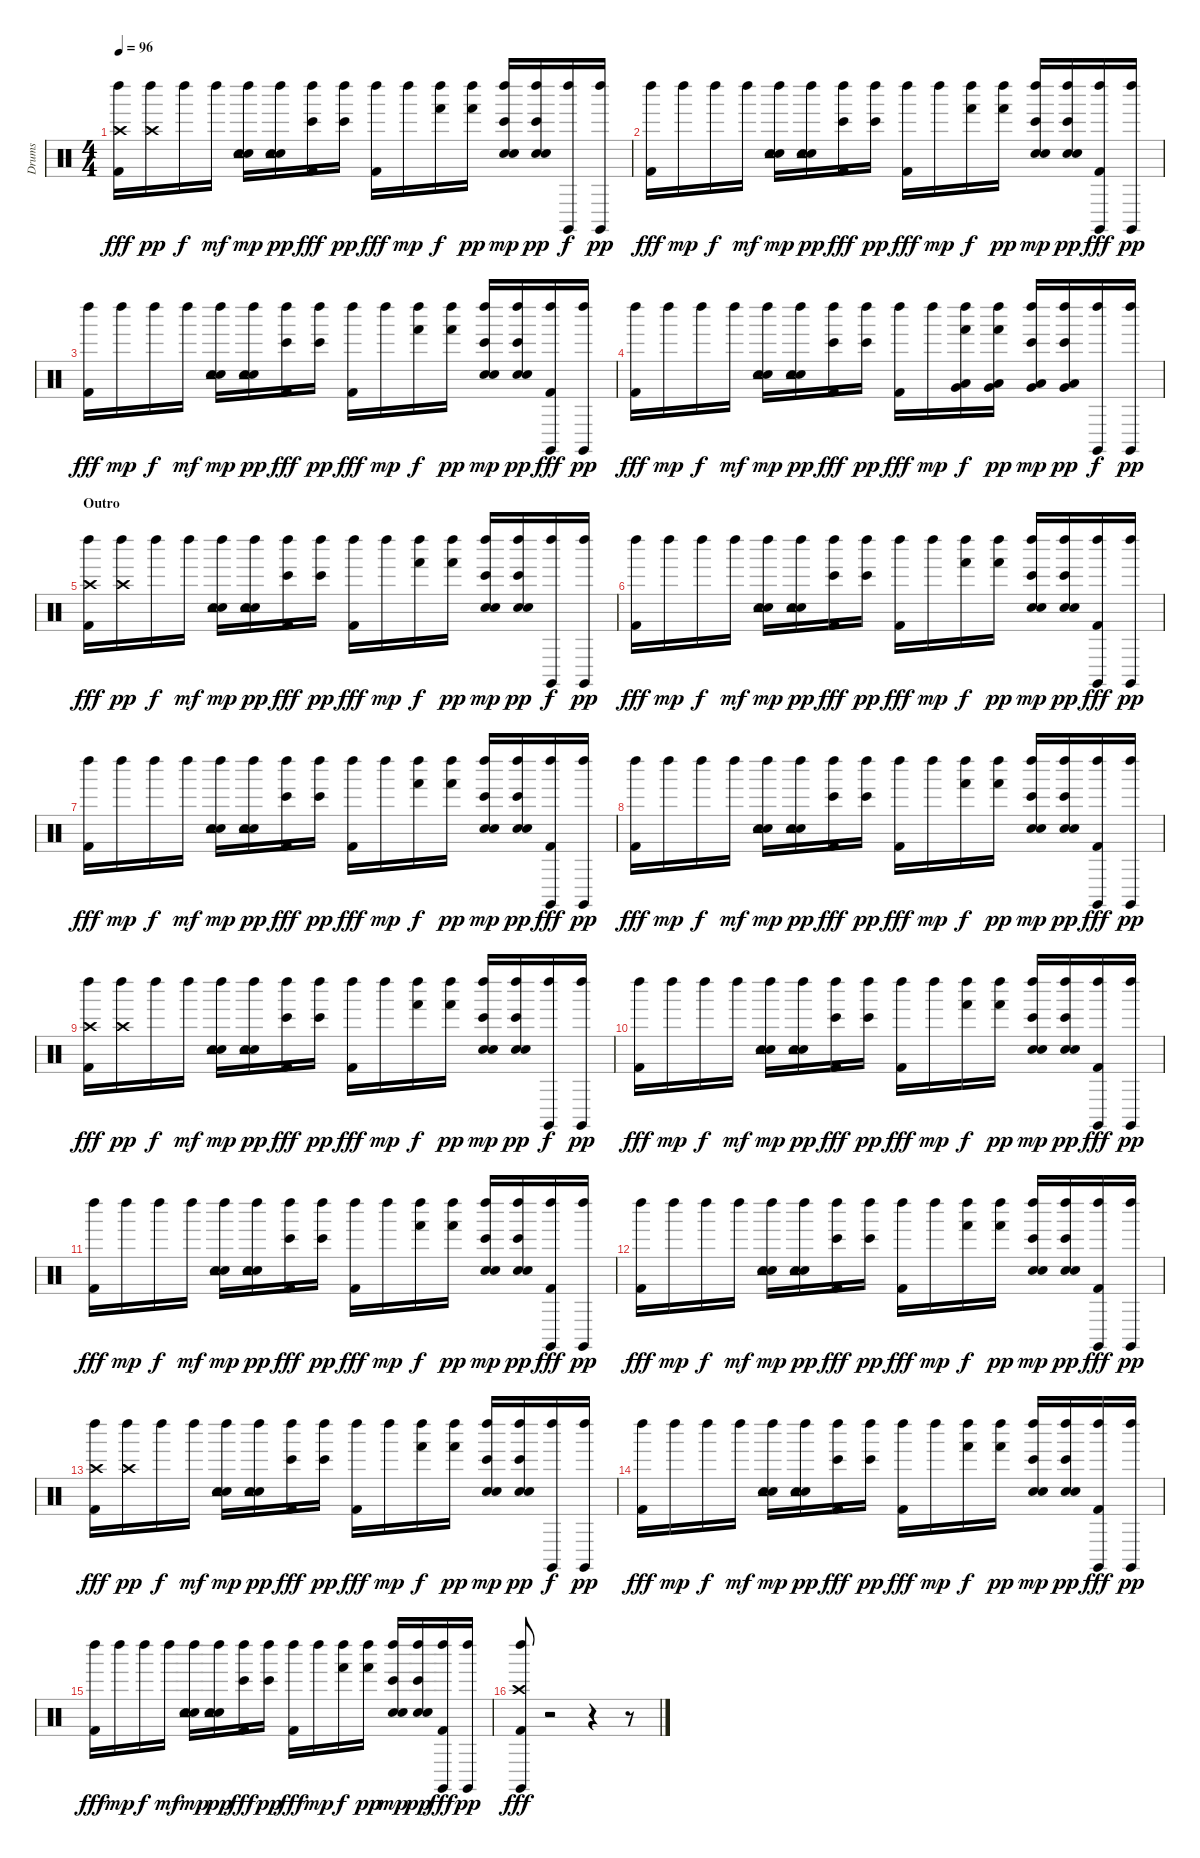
\track ("Drums" "Drums") {instrument percussion}
\staff {score}
\articulation defaults
\ts (4 4)
\tempo 96
\clef neutral
\ks c
("Left Maraca (hit)" "Crash high (hit)" "Kick (hit) 2").16{dy fff} ("Left Maraca (hit)" "Crash high (hit)").16{dy pp} "Left Maraca (hit)".16{dy f} "Left Maraca (hit)".16{dy mf} ("Left Maraca (hit)" "Snare (hit) 2" "Tambourine (hit)" "Electric Snare (hit)").16{dy mp} ("Left Maraca (hit)" "Snare (hit) 2" "Tambourine (hit)" "Electric Snare (hit)").16{dy pp} ("Left Maraca (hit)" "Bongo High (hit)" "Kick (hit) 2").16{dy fff} ("Left Maraca (hit)" "Bongo High (hit)").16{dy pp} ("Left Maraca (hit)" "Kick (hit) 2").16{dy fff} "Left Maraca (hit)".16{dy mp} ("Left Maraca (hit)" "Hand (hit)").16{dy f} ("Left Maraca (hit)" "Hand (hit)").16{dy pp} ("Left Maraca (hit)" "Bongo High (hit)" "Snare (hit) 2" "Electric Snare (hit)").16{dy mp} ("Left Maraca (hit)" "Bongo High (hit)" "Snare (hit) 2" "Electric Snare (hit)").16{dy pp} ("Left Maraca (hit)" "Claves (hit)").16{dy f} ("Left Maraca (hit)" "Claves (hit)").16{dy pp} |
("Left Maraca (hit)" "Kick (hit) 2").16{dy fff} "Left Maraca (hit)".16{dy mp} "Left Maraca (hit)".16{dy f} "Left Maraca (hit)".16{dy mf} ("Left Maraca (hit)" "Snare (hit) 2" "Tambourine (hit)" "Electric Snare (hit)").16{dy mp} ("Left Maraca (hit)" "Snare (hit) 2" "Tambourine (hit)" "Electric Snare (hit)").16{dy pp} ("Left Maraca (hit)" "Bongo High (hit)" "Kick (hit) 2").16{dy fff} ("Left Maraca (hit)" "Bongo High (hit)").16{dy pp} ("Left Maraca (hit)" "Kick (hit) 2").16{dy fff} "Left Maraca (hit)".16{dy mp} ("Left Maraca (hit)" "Hand (hit)").16{dy f} ("Left Maraca (hit)" "Hand (hit)").16{dy pp} ("Left Maraca (hit)" "Bongo High (hit)" "Snare (hit) 2" "Electric Snare (hit)").16{dy mp} ("Left Maraca (hit)" "Bongo High (hit)" "Snare (hit) 2" "Electric Snare (hit)").16{dy pp} ("Left Maraca (hit)" "Claves (hit)" "Kick (hit) 2").16{dy fff} ("Left Maraca (hit)" "Claves (hit)").16{dy pp} |
("Left Maraca (hit)" "Kick (hit) 2").16{dy fff} "Left Maraca (hit)".16{dy mp} "Left Maraca (hit)".16{dy f} "Left Maraca (hit)".16{dy mf} ("Left Maraca (hit)" "Snare (hit) 2" "Tambourine (hit)" "Electric Snare (hit)").16{dy mp} ("Left Maraca (hit)" "Snare (hit) 2" "Tambourine (hit)" "Electric Snare (hit)").16{dy pp} ("Left Maraca (hit)" "Bongo High (hit)" "Kick (hit) 2").16{dy fff} ("Left Maraca (hit)" "Bongo High (hit)").16{dy pp} ("Left Maraca (hit)" "Kick (hit) 2").16{dy fff} "Left Maraca (hit)".16{dy mp} ("Left Maraca (hit)" "Hand (hit)").16{dy f} ("Left Maraca (hit)" "Hand (hit)").16{dy pp} ("Left Maraca (hit)" "Bongo High (hit)" "Snare (hit) 2" "Electric Snare (hit)").16{dy mp} ("Left Maraca (hit)" "Bongo High (hit)" "Snare (hit) 2" "Electric Snare (hit)").16{dy pp} ("Left Maraca (hit)" "Claves (hit)" "Kick (hit) 2").16{dy fff} ("Left Maraca (hit)" "Claves (hit)").16{dy pp} |
("Left Maraca (hit)" "Kick (hit) 2").16{dy fff} "Left Maraca (hit)".16{dy mp} "Left Maraca (hit)".16{dy f} "Left Maraca (hit)".16{dy mf} ("Left Maraca (hit)" "Snare (hit) 2" "Tambourine (hit)" "Electric Snare (hit)").16{dy mp} ("Left Maraca (hit)" "Snare (hit) 2" "Tambourine (hit)" "Electric Snare (hit)").16{dy pp} ("Left Maraca (hit)" "Bongo High (hit)" "Kick (hit) 2").16{dy fff} ("Left Maraca (hit)" "Bongo High (hit)").16{dy pp} ("Left Maraca (hit)" "Kick (hit) 2").16{dy fff} "Left Maraca (hit)".16{dy mp} ("Left Maraca (hit)" "Hand (hit)" "Very Low Tom (hit)" "Low Tom (hit)").16{dy f} ("Left Maraca (hit)" "Hand (hit)" "Very Low Tom (hit)" "Low Tom (hit)").16{dy pp} ("Left Maraca (hit)" "Bongo High (hit)" "Very Low Tom (hit)" "Low Floor Tom (hit)").16{dy mp} ("Left Maraca (hit)" "Bongo High (hit)" "Very Low Tom (hit)" "Low Floor Tom (hit)").16{dy pp} ("Left Maraca (hit)" "Claves (hit)").16{dy f} ("Left Maraca (hit)" "Claves (hit)").16{dy pp} |
\section ("" "Outro")
("Left Maraca (hit)" "Crash high (hit)" "Kick (hit) 2").16{dy fff} ("Left Maraca (hit)" "Crash high (hit)").16{dy pp} "Left Maraca (hit)".16{dy f} "Left Maraca (hit)".16{dy mf} ("Left Maraca (hit)" "Snare (hit) 2" "Tambourine (hit)" "Electric Snare (hit)").16{dy mp} ("Left Maraca (hit)" "Snare (hit) 2" "Tambourine (hit)" "Electric Snare (hit)").16{dy pp} ("Left Maraca (hit)" "Bongo High (hit)" "Kick (hit) 2").16{dy fff} ("Left Maraca (hit)" "Bongo High (hit)").16{dy pp} ("Left Maraca (hit)" "Kick (hit) 2").16{dy fff} "Left Maraca (hit)".16{dy mp} ("Left Maraca (hit)" "Hand (hit)").16{dy f} ("Left Maraca (hit)" "Hand (hit)").16{dy pp} ("Left Maraca (hit)" "Bongo High (hit)" "Snare (hit) 2" "Electric Snare (hit)").16{dy mp} ("Left Maraca (hit)" "Bongo High (hit)" "Snare (hit) 2" "Electric Snare (hit)").16{dy pp} ("Left Maraca (hit)" "Claves (hit)").16{dy f} ("Left Maraca (hit)" "Claves (hit)").16{dy pp} |
("Left Maraca (hit)" "Kick (hit) 2").16{dy fff} "Left Maraca (hit)".16{dy mp} "Left Maraca (hit)".16{dy f} "Left Maraca (hit)".16{dy mf} ("Left Maraca (hit)" "Snare (hit) 2" "Tambourine (hit)" "Electric Snare (hit)").16{dy mp} ("Left Maraca (hit)" "Snare (hit) 2" "Tambourine (hit)" "Electric Snare (hit)").16{dy pp} ("Left Maraca (hit)" "Bongo High (hit)" "Kick (hit) 2").16{dy fff} ("Left Maraca (hit)" "Bongo High (hit)").16{dy pp} ("Left Maraca (hit)" "Kick (hit) 2").16{dy fff} "Left Maraca (hit)".16{dy mp} ("Left Maraca (hit)" "Hand (hit)").16{dy f} ("Left Maraca (hit)" "Hand (hit)").16{dy pp} ("Left Maraca (hit)" "Bongo High (hit)" "Snare (hit) 2" "Electric Snare (hit)").16{dy mp} ("Left Maraca (hit)" "Bongo High (hit)" "Snare (hit) 2" "Electric Snare (hit)").16{dy pp} ("Left Maraca (hit)" "Claves (hit)" "Kick (hit) 2").16{dy fff} ("Left Maraca (hit)" "Claves (hit)").16{dy pp} |
("Left Maraca (hit)" "Kick (hit) 2").16{dy fff} "Left Maraca (hit)".16{dy mp} "Left Maraca (hit)".16{dy f} "Left Maraca (hit)".16{dy mf} ("Left Maraca (hit)" "Snare (hit) 2" "Tambourine (hit)" "Electric Snare (hit)").16{dy mp} ("Left Maraca (hit)" "Snare (hit) 2" "Tambourine (hit)" "Electric Snare (hit)").16{dy pp} ("Left Maraca (hit)" "Bongo High (hit)" "Kick (hit) 2").16{dy fff} ("Left Maraca (hit)" "Bongo High (hit)").16{dy pp} ("Left Maraca (hit)" "Kick (hit) 2").16{dy fff} "Left Maraca (hit)".16{dy mp} ("Left Maraca (hit)" "Hand (hit)").16{dy f} ("Left Maraca (hit)" "Hand (hit)").16{dy pp} ("Left Maraca (hit)" "Bongo High (hit)" "Snare (hit) 2" "Electric Snare (hit)").16{dy mp} ("Left Maraca (hit)" "Bongo High (hit)" "Snare (hit) 2" "Electric Snare (hit)").16{dy pp} ("Left Maraca (hit)" "Claves (hit)" "Kick (hit) 2").16{dy fff} ("Left Maraca (hit)" "Claves (hit)").16{dy pp} |
("Left Maraca (hit)" "Kick (hit) 2").16{dy fff} "Left Maraca (hit)".16{dy mp} "Left Maraca (hit)".16{dy f} "Left Maraca (hit)".16{dy mf} ("Left Maraca (hit)" "Snare (hit) 2" "Tambourine (hit)" "Electric Snare (hit)").16{dy mp} ("Left Maraca (hit)" "Snare (hit) 2" "Tambourine (hit)" "Electric Snare (hit)").16{dy pp} ("Left Maraca (hit)" "Bongo High (hit)" "Kick (hit) 2").16{dy fff} ("Left Maraca (hit)" "Bongo High (hit)").16{dy pp} ("Left Maraca (hit)" "Kick (hit) 2").16{dy fff} "Left Maraca (hit)".16{dy mp} ("Left Maraca (hit)" "Hand (hit)").16{dy f} ("Left Maraca (hit)" "Hand (hit)").16{dy pp} ("Left Maraca (hit)" "Bongo High (hit)" "Snare (hit) 2" "Electric Snare (hit)").16{dy mp} ("Left Maraca (hit)" "Bongo High (hit)" "Snare (hit) 2" "Electric Snare (hit)").16{dy pp} ("Left Maraca (hit)" "Claves (hit)" "Kick (hit) 2").16{dy fff} ("Left Maraca (hit)" "Claves (hit)").16{dy pp} |
("Left Maraca (hit)" "Crash high (hit)" "Kick (hit) 2").16{dy fff} ("Left Maraca (hit)" "Crash high (hit)").16{dy pp} "Left Maraca (hit)".16{dy f} "Left Maraca (hit)".16{dy mf} ("Left Maraca (hit)" "Snare (hit) 2" "Tambourine (hit)" "Electric Snare (hit)").16{dy mp} ("Left Maraca (hit)" "Snare (hit) 2" "Tambourine (hit)" "Electric Snare (hit)").16{dy pp} ("Left Maraca (hit)" "Bongo High (hit)" "Kick (hit) 2").16{dy fff} ("Left Maraca (hit)" "Bongo High (hit)").16{dy pp} ("Left Maraca (hit)" "Kick (hit) 2").16{dy fff} "Left Maraca (hit)".16{dy mp} ("Left Maraca (hit)" "Hand (hit)").16{dy f} ("Left Maraca (hit)" "Hand (hit)").16{dy pp} ("Left Maraca (hit)" "Bongo High (hit)" "Snare (hit) 2" "Electric Snare (hit)").16{dy mp} ("Left Maraca (hit)" "Bongo High (hit)" "Snare (hit) 2" "Electric Snare (hit)").16{dy pp} ("Left Maraca (hit)" "Claves (hit)").16{dy f} ("Left Maraca (hit)" "Claves (hit)").16{dy pp} |
("Left Maraca (hit)" "Kick (hit) 2").16{dy fff} "Left Maraca (hit)".16{dy mp} "Left Maraca (hit)".16{dy f} "Left Maraca (hit)".16{dy mf} ("Left Maraca (hit)" "Snare (hit) 2" "Tambourine (hit)" "Electric Snare (hit)").16{dy mp} ("Left Maraca (hit)" "Snare (hit) 2" "Tambourine (hit)" "Electric Snare (hit)").16{dy pp} ("Left Maraca (hit)" "Bongo High (hit)" "Kick (hit) 2").16{dy fff} ("Left Maraca (hit)" "Bongo High (hit)").16{dy pp} ("Left Maraca (hit)" "Kick (hit) 2").16{dy fff} "Left Maraca (hit)".16{dy mp} ("Left Maraca (hit)" "Hand (hit)").16{dy f} ("Left Maraca (hit)" "Hand (hit)").16{dy pp} ("Left Maraca (hit)" "Bongo High (hit)" "Snare (hit) 2" "Electric Snare (hit)").16{dy mp} ("Left Maraca (hit)" "Bongo High (hit)" "Snare (hit) 2" "Electric Snare (hit)").16{dy pp} ("Left Maraca (hit)" "Claves (hit)" "Kick (hit) 2").16{dy fff} ("Left Maraca (hit)" "Claves (hit)").16{dy pp} |
("Left Maraca (hit)" "Kick (hit) 2").16{dy fff volume 15} "Left Maraca (hit)".16{dy mp} "Left Maraca (hit)".16{dy f} "Left Maraca (hit)".16{dy mf} ("Left Maraca (hit)" "Snare (hit) 2" "Tambourine (hit)" "Electric Snare (hit)").16{dy mp} ("Left Maraca (hit)" "Snare (hit) 2" "Tambourine (hit)" "Electric Snare (hit)").16{dy pp} ("Left Maraca (hit)" "Bongo High (hit)" "Kick (hit) 2").16{dy fff} ("Left Maraca (hit)" "Bongo High (hit)").16{dy pp} ("Left Maraca (hit)" "Kick (hit) 2").16{dy fff} "Left Maraca (hit)".16{dy mp} ("Left Maraca (hit)" "Hand (hit)").16{dy f} ("Left Maraca (hit)" "Hand (hit)").16{dy pp} ("Left Maraca (hit)" "Bongo High (hit)" "Snare (hit) 2" "Electric Snare (hit)").16{dy mp} ("Left Maraca (hit)" "Bongo High (hit)" "Snare (hit) 2" "Electric Snare (hit)").16{dy pp} ("Left Maraca (hit)" "Claves (hit)" "Kick (hit) 2").16{dy fff} ("Left Maraca (hit)" "Claves (hit)").16{dy pp} |
("Left Maraca (hit)" "Kick (hit) 2").16{dy fff volume 14} "Left Maraca (hit)".16{dy mp} "Left Maraca (hit)".16{dy f} "Left Maraca (hit)".16{dy mf} ("Left Maraca (hit)" "Snare (hit) 2" "Tambourine (hit)" "Electric Snare (hit)").16{dy mp} ("Left Maraca (hit)" "Snare (hit) 2" "Tambourine (hit)" "Electric Snare (hit)").16{dy pp} ("Left Maraca (hit)" "Bongo High (hit)" "Kick (hit) 2").16{dy fff} ("Left Maraca (hit)" "Bongo High (hit)").16{dy pp} ("Left Maraca (hit)" "Kick (hit) 2").16{dy fff} "Left Maraca (hit)".16{dy mp} ("Left Maraca (hit)" "Hand (hit)").16{dy f} ("Left Maraca (hit)" "Hand (hit)").16{dy pp} ("Left Maraca (hit)" "Bongo High (hit)" "Snare (hit) 2" "Electric Snare (hit)").16{dy mp} ("Left Maraca (hit)" "Bongo High (hit)" "Snare (hit) 2" "Electric Snare (hit)").16{dy pp} ("Left Maraca (hit)" "Claves (hit)" "Kick (hit) 2").16{dy fff} ("Left Maraca (hit)" "Claves (hit)").16{dy pp} |
("Left Maraca (hit)" "Crash high (hit)" "Kick (hit) 2").16{dy fff volume 12} ("Left Maraca (hit)" "Crash high (hit)").16{dy pp} "Left Maraca (hit)".16{dy f} "Left Maraca (hit)".16{dy mf} ("Left Maraca (hit)" "Snare (hit) 2" "Tambourine (hit)" "Electric Snare (hit)").16{dy mp} ("Left Maraca (hit)" "Snare (hit) 2" "Tambourine (hit)" "Electric Snare (hit)").16{dy pp} ("Left Maraca (hit)" "Bongo High (hit)" "Kick (hit) 2").16{dy fff} ("Left Maraca (hit)" "Bongo High (hit)").16{dy pp} ("Left Maraca (hit)" "Kick (hit) 2").16{dy fff} "Left Maraca (hit)".16{dy mp} ("Left Maraca (hit)" "Hand (hit)").16{dy f} ("Left Maraca (hit)" "Hand (hit)").16{dy pp} ("Left Maraca (hit)" "Bongo High (hit)" "Snare (hit) 2" "Electric Snare (hit)").16{dy mp} ("Left Maraca (hit)" "Bongo High (hit)" "Snare (hit) 2" "Electric Snare (hit)").16{dy pp} ("Left Maraca (hit)" "Claves (hit)").16{dy f} ("Left Maraca (hit)" "Claves (hit)").16{dy pp} |
("Left Maraca (hit)" "Kick (hit) 2").16{dy fff volume 10} "Left Maraca (hit)".16{dy mp} "Left Maraca (hit)".16{dy f} "Left Maraca (hit)".16{dy mf} ("Left Maraca (hit)" "Snare (hit) 2" "Tambourine (hit)" "Electric Snare (hit)").16{dy mp} ("Left Maraca (hit)" "Snare (hit) 2" "Tambourine (hit)" "Electric Snare (hit)").16{dy pp} ("Left Maraca (hit)" "Bongo High (hit)" "Kick (hit) 2").16{dy fff} ("Left Maraca (hit)" "Bongo High (hit)").16{dy pp} ("Left Maraca (hit)" "Kick (hit) 2").16{dy fff} "Left Maraca (hit)".16{dy mp} ("Left Maraca (hit)" "Hand (hit)").16{dy f} ("Left Maraca (hit)" "Hand (hit)").16{dy pp} ("Left Maraca (hit)" "Bongo High (hit)" "Snare (hit) 2" "Electric Snare (hit)").16{dy mp} ("Left Maraca (hit)" "Bongo High (hit)" "Snare (hit) 2" "Electric Snare (hit)").16{dy pp} ("Left Maraca (hit)" "Claves (hit)" "Kick (hit) 2").16{dy fff} ("Left Maraca (hit)" "Claves (hit)").16{dy pp} |
("Left Maraca (hit)" "Kick (hit) 2").16{dy fff volume 8} "Left Maraca (hit)".16{dy mp} "Left Maraca (hit)".16{dy f} "Left Maraca (hit)".16{dy mf} ("Left Maraca (hit)" "Snare (hit) 2" "Tambourine (hit)" "Electric Snare (hit)").16{dy mp} ("Left Maraca (hit)" "Snare (hit) 2" "Tambourine (hit)" "Electric Snare (hit)").16{dy pp} ("Left Maraca (hit)" "Bongo High (hit)" "Kick (hit) 2").16{dy fff} ("Left Maraca (hit)" "Bongo High (hit)").16{dy pp} ("Left Maraca (hit)" "Kick (hit) 2").16{dy fff} "Left Maraca (hit)".16{dy mp} ("Left Maraca (hit)" "Hand (hit)").16{dy f} ("Left Maraca (hit)" "Hand (hit)").16{dy pp} ("Left Maraca (hit)" "Bongo High (hit)" "Snare (hit) 2" "Electric Snare (hit)").16{dy mp} ("Left Maraca (hit)" "Bongo High (hit)" "Snare (hit) 2" "Electric Snare (hit)").16{dy pp} ("Left Maraca (hit)" "Claves (hit)" "Kick (hit) 2").16{dy fff} ("Left Maraca (hit)" "Claves (hit)").16{dy pp} |
("Left Maraca (hit)" "Claves (hit)" "Crash high (hit)" "Kick (hit) 2").8{dy fff volume 3} r.2 r.4 r.8
